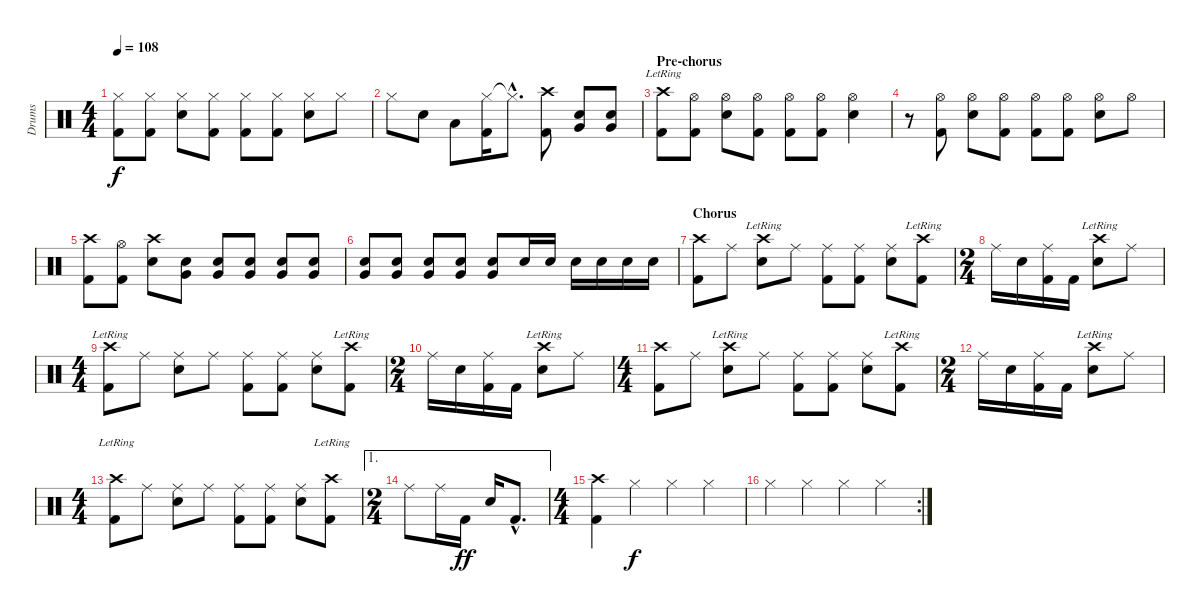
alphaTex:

\track ("Drums" "Drums") {instrument percussion}
\staff {score}
\articulation defaults
\ts (4 4)
\tempo 108
\clef neutral
\ks c
("Hi-Hat (closed)" "Kick (hit) 2").8{dy f} ("Hi-Hat (closed)" "Kick (hit) 2").8 ("Hi-Hat (closed)" "Snare (hit) 2").8 ("Hi-Hat (closed)" "Kick (hit) 2").8 ("Hi-Hat (closed)" "Kick (hit) 2").8 ("Hi-Hat (closed)" "Kick (hit) 2").8 ("Hi-Hat (closed)" "Snare (hit) 2").8 "Hi-Hat (closed)".8 |
"Hi-Hat (closed)".8 "Snare (hit) 2".8 "Low Tom (hit)".8 ("Hi-Hat (closed)" "Kick (hit) 2").16 "Hi-Hat (closed)"{hac t}.8{d} ("Crash high (hit)" "Kick (hit) 2").8 ("Very Low Tom (hit)" "Snare (hit) 2").8 ("Very Low Tom (hit)" "Snare (hit) 2").8 |
\section ("" "Pre-chorus")
("Crash high (hit)"{lr} "Kick (hit) 2").8 ("Hi-Hat (open)" "Kick (hit) 2").8 ("Hi-Hat (open)" "Snare (hit) 2").8 ("Hi-Hat (open)" "Kick (hit) 2").8 ("Hi-Hat (open)" "Kick (hit) 2").8 ("Hi-Hat (open)" "Kick (hit) 2").8 ("Hi-Hat (open)" "Snare (hit) 2").4 |
r.8 ("Hi-Hat (open)" "Kick (hit) 2").8 ("Hi-Hat (open)" "Snare (hit) 2").8 ("Hi-Hat (open)" "Kick (hit) 2").8 ("Hi-Hat (open)" "Kick (hit) 2").8 ("Hi-Hat (open)" "Kick (hit) 2").8 ("Hi-Hat (open)" "Snare (hit) 2").8 "Hi-Hat (open)".8 |
("Crash high (hit)" "Kick (hit) 2").8 ("Hi-Hat (open)" "Kick (hit) 2").8 ("Crash high (hit)" "Snare (hit) 2").8 ("Very Low Tom (hit)" "Snare (hit) 2").8 ("Very Low Tom (hit)" "Snare (hit) 2").8 ("Very Low Tom (hit)" "Snare (hit) 2").8 ("Very Low Tom (hit)" "Snare (hit) 2").8 ("Very Low Tom (hit)" "Snare (hit) 2").8 |
("Very Low Tom (hit)" "Snare (hit) 2").8 ("Very Low Tom (hit)" "Snare (hit) 2").8 ("Very Low Tom (hit)" "Snare (hit) 2").8 ("Very Low Tom (hit)" "Snare (hit) 2").8 ("Very Low Tom (hit)" "Snare (hit) 2").8 "Snare (hit) 2".16 "Snare (hit) 2".16 "Snare (hit) 2".16 "Snare (hit) 2".16 "Snare (hit) 2".16 "Snare (hit) 2".16 |
\section ("" "Chorus")
("Crash high (hit)" "Kick (hit) 2").8 "Ride (middle)".8 ("Crash high (hit)"{lr} "Snare (hit) 2").8 "Ride (middle)".8 ("Ride (middle)" "Kick (hit) 2").8 ("Ride (middle)" "Kick (hit) 2").8 ("Ride (middle)" "Snare (hit) 2").8 ("Crash high (hit)"{lr} "Kick (hit) 2").8 |
\ts (2 4)
"Ride (middle)".16 "Snare (hit) 2".16 ("Ride (middle)" "Kick (hit) 2").16 "Kick (hit) 2".16 ("Crash high (hit)"{lr} "Snare (hit) 2").8 "Ride (middle)".8 |
\ts (4 4)
("Crash high (hit)"{lr} "Kick (hit) 2").8 "Ride (middle)".8 ("Ride (middle)" "Snare (hit) 2").8 "Ride (middle)".8 ("Ride (middle)" "Kick (hit) 2").8 ("Ride (middle)" "Kick (hit) 2").8 ("Ride (middle)" "Snare (hit) 2").8 ("Crash high (hit)"{lr} "Kick (hit) 2").8 |
\ts (2 4)
"Ride (middle)".16 "Snare (hit) 2".16 ("Ride (middle)" "Kick (hit) 2").16 "Kick (hit) 2".16 ("Crash high (hit)"{lr} "Snare (hit) 2").8 "Ride (middle)".8 |
\ts (4 4)
("Crash high (hit)" "Kick (hit) 2").8 "Ride (middle)".8 ("Crash high (hit)"{lr} "Snare (hit) 2").8 "Ride (middle)".8 ("Ride (middle)" "Kick (hit) 2").8 ("Ride (middle)" "Kick (hit) 2").8 ("Ride (middle)" "Snare (hit) 2").8 ("Crash high (hit)"{lr} "Kick (hit) 2").8 |
\ts (2 4)
"Ride (middle)".16 "Snare (hit) 2".16 ("Ride (middle)" "Kick (hit) 2").16 "Kick (hit) 2".16 ("Crash high (hit)"{lr} "Snare (hit) 2").8 "Ride (middle)".8 |
\ts (4 4)
("Crash high (hit)"{lr} "Kick (hit) 2").8 "Ride (middle)".8 ("Ride (middle)" "Snare (hit) 2").8 "Ride (middle)".8 ("Ride (middle)" "Kick (hit) 2").8 ("Ride (middle)" "Kick (hit) 2").8 ("Ride (middle)" "Snare (hit) 2").8 ("Crash high (hit)"{lr} "Kick (hit) 2").8 |
\ae 1
\ts (2 4)
"Ride (middle)".8 "Ride (middle)".16 "Kick (hit) 2".16{dy ff} "Snare (hit) 2".16 "Kick (hit) 2"{hac}.8{d} |
\ts (4 4)
("Crash high (hit)" "Kick (hit) 2").4 "Hi-Hat (closed)".4{dy f} "Hi-Hat (closed)".4 "Hi-Hat (closed)".4 |
\rc 2 "Hi-Hat (closed)".4 "Hi-Hat (closed)".4 "Hi-Hat (closed)".4 "Hi-Hat (closed)".4
